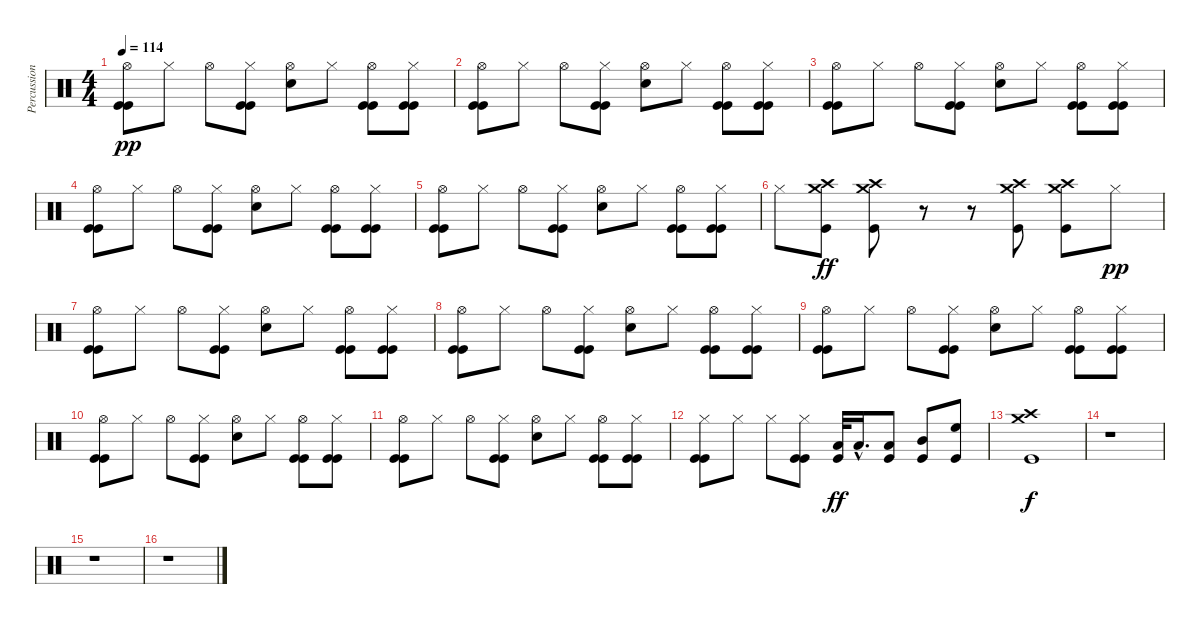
\track ("Percussion" "Percussion") {instrument percussion}
\staff {score}
\articulation defaults
\ts (4 4)
\tempo 114
\clef neutral
\ks c
("Kick (hit)" "Hi-Hat (open)" "Kick (hit)").8{dy pp} "Hi-Hat (closed)".8 "Hi-Hat (open)".8 ("Kick (hit)" "Hi-Hat (closed)" "Kick (hit)").8 ("Snare (hit) 2" "Hi-Hat (open)").8 "Hi-Hat (closed)".8 ("Kick (hit)" "Hi-Hat (open)" "Kick (hit)").8 ("Kick (hit)" "Hi-Hat (closed)" "Kick (hit)").8 |
("Kick (hit)" "Hi-Hat (open)" "Kick (hit)").8 "Hi-Hat (closed)".8 "Hi-Hat (open)".8 ("Kick (hit)" "Hi-Hat (closed)" "Kick (hit)").8 ("Snare (hit) 2" "Hi-Hat (open)").8 "Hi-Hat (closed)".8 ("Kick (hit)" "Hi-Hat (open)" "Kick (hit)").8 ("Kick (hit)" "Hi-Hat (closed)" "Kick (hit)").8 |
("Kick (hit)" "Hi-Hat (open)" "Kick (hit)").8 "Hi-Hat (closed)".8 "Hi-Hat (open)".8 ("Kick (hit)" "Hi-Hat (closed)" "Kick (hit)").8 ("Snare (hit) 2" "Hi-Hat (open)").8 "Hi-Hat (closed)".8 ("Kick (hit)" "Hi-Hat (open)" "Kick (hit)").8 ("Kick (hit)" "Hi-Hat (closed)" "Kick (hit)").8 |
("Kick (hit)" "Hi-Hat (open)" "Kick (hit)").8 "Hi-Hat (closed)".8 "Hi-Hat (open)".8 ("Kick (hit)" "Hi-Hat (closed)" "Kick (hit)").8 ("Snare (hit) 2" "Hi-Hat (open)").8 "Hi-Hat (closed)".8 ("Kick (hit)" "Hi-Hat (open)" "Kick (hit)").8 ("Kick (hit)" "Hi-Hat (closed)" "Kick (hit)").8 |
("Kick (hit)" "Hi-Hat (open)" "Kick (hit)").8 "Hi-Hat (closed)".8 "Hi-Hat (open)".8 ("Kick (hit)" "Hi-Hat (closed)" "Kick (hit)").8 ("Snare (hit) 2" "Hi-Hat (open)").8 "Hi-Hat (closed)".8 ("Kick (hit)" "Hi-Hat (open)" "Kick (hit)").8 ("Kick (hit)" "Hi-Hat (closed)" "Kick (hit)").8 |
"Hi-Hat (closed)".8 ("Kick (hit)" "Crash high (hit)" "Crash medium (hit)").8{dy ff} ("Kick (hit)" "Crash high (hit)" "Crash medium (hit)").8 r.8 r.8 ("Kick (hit)" "Crash high (hit)" "Crash medium (hit)").8 ("Kick (hit)" "Crash high (hit)" "Crash medium (hit)").8 "Hi-Hat (closed)".8{dy pp} |
("Kick (hit)" "Hi-Hat (open)" "Kick (hit)").8 "Hi-Hat (closed)".8 "Hi-Hat (open)".8 ("Kick (hit)" "Hi-Hat (closed)" "Kick (hit)").8 ("Snare (hit) 2" "Hi-Hat (open)").8 "Hi-Hat (closed)".8 ("Kick (hit)" "Hi-Hat (open)" "Kick (hit)").8 ("Kick (hit)" "Hi-Hat (closed)" "Kick (hit)").8 |
("Kick (hit)" "Hi-Hat (open)" "Kick (hit)").8 "Hi-Hat (closed)".8 "Hi-Hat (open)".8 ("Kick (hit)" "Hi-Hat (closed)" "Kick (hit)").8 ("Snare (hit) 2" "Hi-Hat (open)").8 "Hi-Hat (closed)".8 ("Kick (hit)" "Hi-Hat (open)" "Kick (hit)").8 ("Kick (hit)" "Hi-Hat (closed)" "Kick (hit)").8 |
("Kick (hit)" "Hi-Hat (open)" "Kick (hit)").8 "Hi-Hat (closed)".8 "Hi-Hat (open)".8 ("Kick (hit)" "Hi-Hat (closed)" "Kick (hit)").8 ("Snare (hit) 2" "Hi-Hat (open)").8 "Hi-Hat (closed)".8 ("Kick (hit)" "Hi-Hat (open)" "Kick (hit)").8 ("Kick (hit)" "Hi-Hat (closed)" "Kick (hit)").8 |
("Kick (hit)" "Hi-Hat (open)" "Kick (hit)").8 "Hi-Hat (closed)".8 "Hi-Hat (open)".8 ("Kick (hit)" "Hi-Hat (closed)" "Kick (hit)").8 ("Snare (hit) 2" "Hi-Hat (open)").8 "Hi-Hat (closed)".8 ("Kick (hit)" "Hi-Hat (open)" "Kick (hit)").8 ("Kick (hit)" "Hi-Hat (closed)" "Kick (hit)").8 |
("Kick (hit)" "Hi-Hat (open)" "Kick (hit)").8 "Hi-Hat (closed)".8 "Hi-Hat (open)".8 ("Kick (hit)" "Hi-Hat (closed)" "Kick (hit)").8 ("Snare (hit) 2" "Hi-Hat (open)").8 "Hi-Hat (closed)".8 ("Kick (hit)" "Hi-Hat (open)" "Kick (hit)").8 ("Kick (hit)" "Hi-Hat (closed)" "Kick (hit)").8 |
("Kick (hit)" "Hi-Hat (closed)" "Kick (hit)").8 "Hi-Hat (closed)".8 "Hi-Hat (closed)".8 ("Kick (hit)" "Hi-Hat (closed)" "Kick (hit)").8 ("Kick (hit)" "Low Tom (hit)").32{dy ff} "Low Tom (hit)"{hac}.16{d} ("Kick (hit)" "Low Tom (hit)").8 ("Kick (hit)" "Mid Tom (hit)").8 ("Kick (hit)" "High Floor Tom (hit)").8 |
("Kick (hit)" "Crash medium (hit)" "Crash high (hit)").1{dy f} |
r.1 |
r.1 |
r.1
